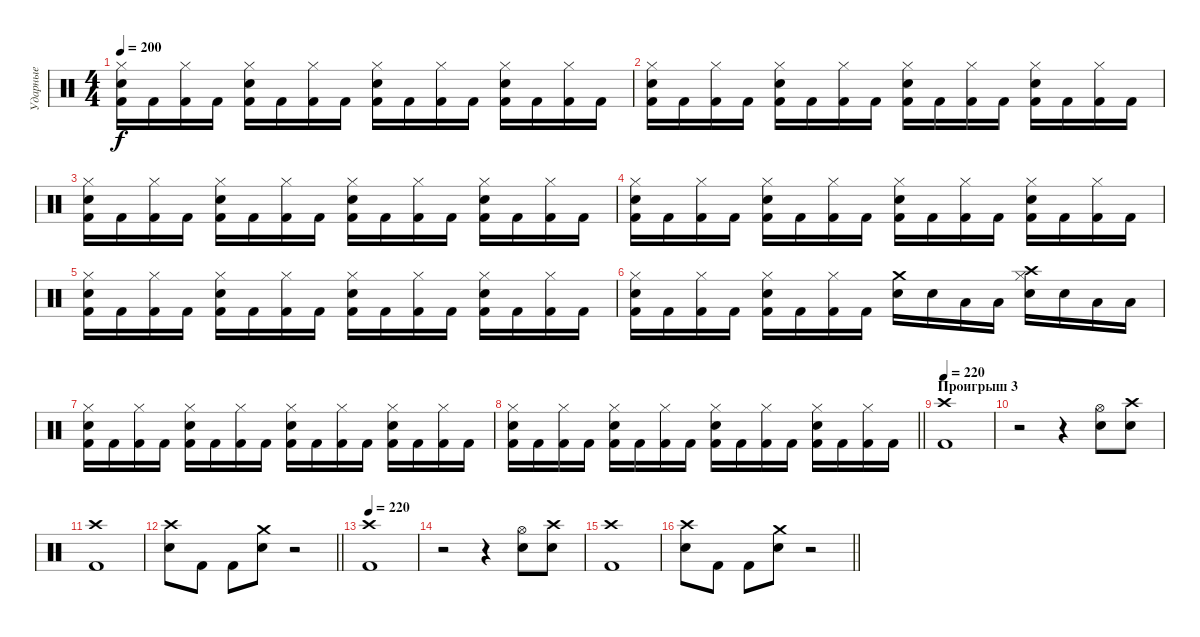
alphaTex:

\track ("Ударные" "Ударные") {instrument percussion}
\staff {score}
\articulation defaults
\ts (4 4)
\tempo 200
\clef neutral
\ks c
("Hi-Hat (closed)" "Snare (hit) 2" "Kick (hit) 2").16{dy f} "Kick (hit) 2".16 ("Hi-Hat (closed)" "Kick (hit) 2").16 "Kick (hit) 2".16 ("Hi-Hat (closed)" "Snare (hit) 2" "Kick (hit) 2").16 "Kick (hit) 2".16 ("Hi-Hat (closed)" "Kick (hit) 2").16 "Kick (hit) 2".16 ("Hi-Hat (closed)" "Snare (hit) 2" "Kick (hit) 2").16 "Kick (hit) 2".16 ("Hi-Hat (closed)" "Kick (hit) 2").16 "Kick (hit) 2".16 ("Hi-Hat (closed)" "Snare (hit) 2" "Kick (hit) 2").16 "Kick (hit) 2".16 ("Hi-Hat (closed)" "Kick (hit) 2").16 "Kick (hit) 2".16 |
("Hi-Hat (closed)" "Snare (hit) 2" "Kick (hit) 2").16 "Kick (hit) 2".16 ("Hi-Hat (closed)" "Kick (hit) 2").16 "Kick (hit) 2".16 ("Hi-Hat (closed)" "Snare (hit) 2" "Kick (hit) 2").16 "Kick (hit) 2".16 ("Hi-Hat (closed)" "Kick (hit) 2").16 "Kick (hit) 2".16 ("Hi-Hat (closed)" "Snare (hit) 2" "Kick (hit) 2").16 "Kick (hit) 2".16 ("Hi-Hat (closed)" "Kick (hit) 2").16 "Kick (hit) 2".16 ("Hi-Hat (closed)" "Snare (hit) 2" "Kick (hit) 2").16 "Kick (hit) 2".16 ("Hi-Hat (closed)" "Kick (hit) 2").16 "Kick (hit) 2".16 |
("Hi-Hat (closed)" "Snare (hit) 2" "Kick (hit) 2").16 "Kick (hit) 2".16 ("Hi-Hat (closed)" "Kick (hit) 2").16 "Kick (hit) 2".16 ("Hi-Hat (closed)" "Snare (hit) 2" "Kick (hit) 2").16 "Kick (hit) 2".16 ("Hi-Hat (closed)" "Kick (hit) 2").16 "Kick (hit) 2".16 ("Hi-Hat (closed)" "Snare (hit) 2" "Kick (hit) 2").16 "Kick (hit) 2".16 ("Hi-Hat (closed)" "Kick (hit) 2").16 "Kick (hit) 2".16 ("Hi-Hat (closed)" "Snare (hit) 2" "Kick (hit) 2").16 "Kick (hit) 2".16 ("Hi-Hat (closed)" "Kick (hit) 2").16 "Kick (hit) 2".16 |
("Hi-Hat (closed)" "Snare (hit) 2" "Kick (hit) 2").16 "Kick (hit) 2".16 ("Hi-Hat (closed)" "Kick (hit) 2").16 "Kick (hit) 2".16 ("Hi-Hat (closed)" "Snare (hit) 2" "Kick (hit) 2").16 "Kick (hit) 2".16 ("Hi-Hat (closed)" "Kick (hit) 2").16 "Kick (hit) 2".16 ("Hi-Hat (closed)" "Snare (hit) 2" "Kick (hit) 2").16 "Kick (hit) 2".16 ("Hi-Hat (closed)" "Kick (hit) 2").16 "Kick (hit) 2".16 ("Hi-Hat (closed)" "Snare (hit) 2" "Kick (hit) 2").16 "Kick (hit) 2".16 ("Hi-Hat (closed)" "Kick (hit) 2").16 "Kick (hit) 2".16 |
("Hi-Hat (closed)" "Snare (hit) 2" "Kick (hit) 2").16 "Kick (hit) 2".16 ("Hi-Hat (closed)" "Kick (hit) 2").16 "Kick (hit) 2".16 ("Hi-Hat (closed)" "Snare (hit) 2" "Kick (hit) 2").16 "Kick (hit) 2".16 ("Hi-Hat (closed)" "Kick (hit) 2").16 "Kick (hit) 2".16 ("Hi-Hat (closed)" "Snare (hit) 2" "Kick (hit) 2").16 "Kick (hit) 2".16 ("Hi-Hat (closed)" "Kick (hit) 2").16 "Kick (hit) 2".16 ("Hi-Hat (closed)" "Snare (hit) 2" "Kick (hit) 2").16 "Kick (hit) 2".16 ("Hi-Hat (closed)" "Kick (hit) 2").16 "Kick (hit) 2".16 |
("Hi-Hat (closed)" "Snare (hit) 2" "Kick (hit) 2").16 "Kick (hit) 2".16 ("Hi-Hat (closed)" "Kick (hit) 2").16 "Kick (hit) 2".16 ("Hi-Hat (closed)" "Snare (hit) 2" "Kick (hit) 2").16 "Kick (hit) 2".16 ("Hi-Hat (closed)" "Kick (hit) 2").16 "Kick (hit) 2".16 ("Crash medium (hit)" "Snare (hit) 2").16 "Snare (hit) 2".16 "Low Tom (hit)".16 "Low Tom (hit)".16 ("Crash high (hit)" "Hi-Hat (closed)" "Snare (hit) 2").16 "Snare (hit) 2".16 "Low Tom (hit)".16 "Low Tom (hit)".16 |
("Hi-Hat (closed)" "Snare (hit) 2" "Kick (hit) 2").16 "Kick (hit) 2".16 ("Hi-Hat (closed)" "Kick (hit) 2").16 "Kick (hit) 2".16 ("Hi-Hat (closed)" "Snare (hit) 2" "Kick (hit) 2").16 "Kick (hit) 2".16 ("Hi-Hat (closed)" "Kick (hit) 2").16 "Kick (hit) 2".16 ("Hi-Hat (closed)" "Snare (hit) 2" "Kick (hit) 2").16 "Kick (hit) 2".16 ("Hi-Hat (closed)" "Kick (hit) 2").16 "Kick (hit) 2".16 ("Hi-Hat (closed)" "Snare (hit) 2" "Kick (hit) 2").16 "Kick (hit) 2".16 ("Hi-Hat (closed)" "Kick (hit) 2").16 "Kick (hit) 2".16 |
\barLineRight lightlight
("Hi-Hat (closed)" "Snare (hit) 2" "Kick (hit) 2").16 "Kick (hit) 2".16 ("Hi-Hat (closed)" "Kick (hit) 2").16 "Kick (hit) 2".16 ("Hi-Hat (closed)" "Snare (hit) 2" "Kick (hit) 2").16 "Kick (hit) 2".16 ("Hi-Hat (closed)" "Kick (hit) 2").16 "Kick (hit) 2".16 ("Hi-Hat (closed)" "Snare (hit) 2" "Kick (hit) 2").16 "Kick (hit) 2".16 ("Hi-Hat (closed)" "Kick (hit) 2").16 "Kick (hit) 2".16 ("Hi-Hat (closed)" "Snare (hit) 2" "Kick (hit) 2").16 "Kick (hit) 2".16 ("Hi-Hat (closed)" "Kick (hit) 2").16 "Kick (hit) 2".16 |
\section ("" "Проигрыш 3")
\tempo 220
("Crash high (hit)" "Kick (hit) 2").1 |
r.2 r.4 ("Hi-Hat (open)" "Electric Snare (hit)").8 ("Crash high (hit)" "Snare (hit) 2").8 |
("Crash high (hit)" "Kick (hit) 2").1 |
\barLineRight lightlight
("Crash high (hit)" "Electric Snare (hit)").8 "Kick (hit) 2".8 "Kick (hit) 2".8 ("Crash medium (hit)" "Snare (hit) 2").8 r.2 |
\section ("" "")
\tempo 220
("Crash high (hit)" "Kick (hit) 2").1 |
r.2 r.4 ("Hi-Hat (open)" "Electric Snare (hit)").8 ("Crash high (hit)" "Snare (hit) 2").8 |
("Crash high (hit)" "Kick (hit) 2").1 |
\barLineRight lightlight
("Crash high (hit)" "Electric Snare (hit)").8 "Kick (hit) 2".8 "Kick (hit) 2".8 ("Crash medium (hit)" "Snare (hit) 2").8 r.2
